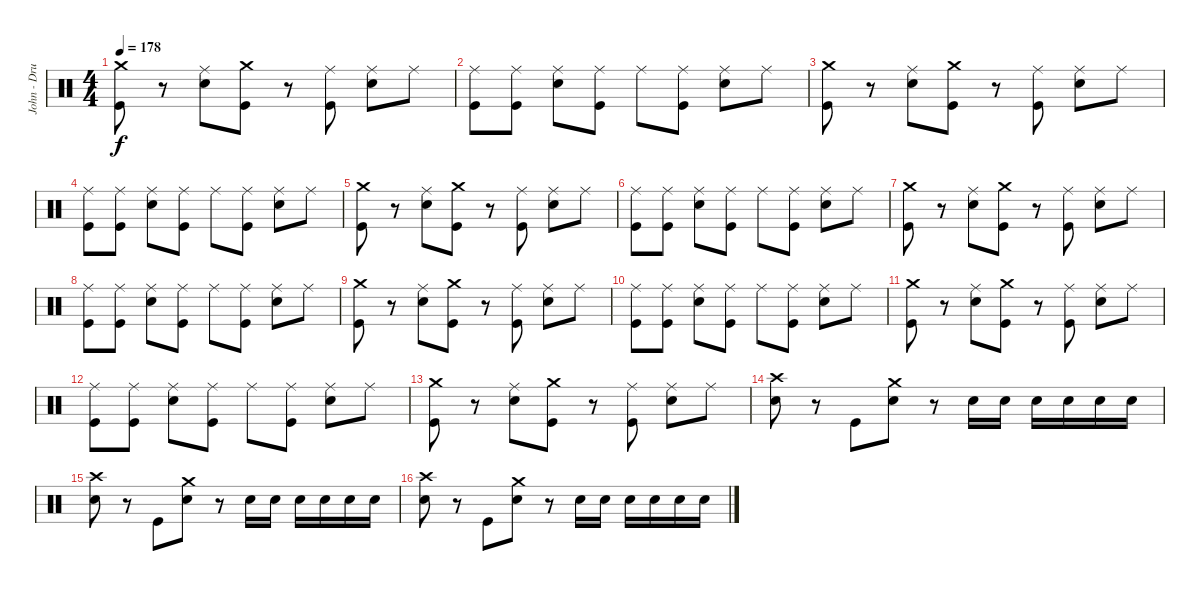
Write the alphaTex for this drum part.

\track ("John - Drums" "John - Dru") {instrument percussion}
\staff {score}
\articulation defaults
\ts (4 4)
\tempo 178
\clef neutral
\ks c
("Crash medium (hit)" "Kick (hit)").8{dy f} r.8 ("Ride (middle)" "Electric Snare (hit)").8 ("Crash medium (hit)" "Kick (hit)").8 r.8 ("Ride (middle)" "Kick (hit)").8 ("Ride (middle)" "Electric Snare (hit)").8 "Ride (middle)".8 |
("Ride (middle)" "Kick (hit)").8 ("Ride (middle)" "Kick (hit)").8 ("Ride (middle)" "Electric Snare (hit)").8 ("Ride (middle)" "Kick (hit)").8 "Ride (middle)".8 ("Ride (middle)" "Kick (hit)").8 ("Ride (middle)" "Electric Snare (hit)").8 "Ride (middle)".8 |
("Crash medium (hit)" "Kick (hit)").8 r.8 ("Ride (middle)" "Electric Snare (hit)").8 ("Crash medium (hit)" "Kick (hit)").8 r.8 ("Ride (middle)" "Kick (hit)").8 ("Ride (middle)" "Electric Snare (hit)").8 "Ride (middle)".8 |
("Ride (middle)" "Kick (hit)").8 ("Ride (middle)" "Kick (hit)").8 ("Ride (middle)" "Electric Snare (hit)").8 ("Ride (middle)" "Kick (hit)").8 "Ride (middle)".8 ("Ride (middle)" "Kick (hit)").8 ("Ride (middle)" "Electric Snare (hit)").8 "Ride (middle)".8 |
("Crash medium (hit)" "Kick (hit)").8 r.8 ("Ride (middle)" "Electric Snare (hit)").8 ("Crash medium (hit)" "Kick (hit)").8 r.8 ("Ride (middle)" "Kick (hit)").8 ("Ride (middle)" "Electric Snare (hit)").8 "Ride (middle)".8 |
("Ride (middle)" "Kick (hit)").8 ("Ride (middle)" "Kick (hit)").8 ("Ride (middle)" "Electric Snare (hit)").8 ("Ride (middle)" "Kick (hit)").8 "Ride (middle)".8 ("Ride (middle)" "Kick (hit)").8 ("Ride (middle)" "Electric Snare (hit)").8 "Ride (middle)".8 |
("Crash medium (hit)" "Kick (hit)").8 r.8 ("Ride (middle)" "Electric Snare (hit)").8 ("Crash medium (hit)" "Kick (hit)").8 r.8 ("Ride (middle)" "Kick (hit)").8 ("Ride (middle)" "Electric Snare (hit)").8 "Ride (middle)".8 |
("Ride (middle)" "Kick (hit)").8 ("Ride (middle)" "Kick (hit)").8 ("Ride (middle)" "Electric Snare (hit)").8 ("Ride (middle)" "Kick (hit)").8 "Ride (middle)".8 ("Ride (middle)" "Kick (hit)").8 ("Ride (middle)" "Electric Snare (hit)").8 "Ride (middle)".8 |
("Crash medium (hit)" "Kick (hit)").8 r.8 ("Ride (middle)" "Electric Snare (hit)").8 ("Crash medium (hit)" "Kick (hit)").8 r.8 ("Ride (middle)" "Kick (hit)").8 ("Ride (middle)" "Electric Snare (hit)").8 "Ride (middle)".8 |
("Ride (middle)" "Kick (hit)").8 ("Ride (middle)" "Kick (hit)").8 ("Ride (middle)" "Electric Snare (hit)").8 ("Ride (middle)" "Kick (hit)").8 "Ride (middle)".8 ("Ride (middle)" "Kick (hit)").8 ("Ride (middle)" "Electric Snare (hit)").8 "Ride (middle)".8 |
("Crash medium (hit)" "Kick (hit)").8 r.8 ("Ride (middle)" "Electric Snare (hit)").8 ("Crash medium (hit)" "Kick (hit)").8 r.8 ("Ride (middle)" "Kick (hit)").8 ("Ride (middle)" "Electric Snare (hit)").8 "Ride (middle)".8 |
("Ride (middle)" "Kick (hit)").8 ("Ride (middle)" "Kick (hit)").8 ("Ride (middle)" "Electric Snare (hit)").8 ("Ride (middle)" "Kick (hit)").8 "Ride (middle)".8 ("Ride (middle)" "Kick (hit)").8 ("Ride (middle)" "Electric Snare (hit)").8 "Ride (middle)".8 |
("Crash medium (hit)" "Kick (hit)").8 r.8 ("Ride (middle)" "Electric Snare (hit)").8 ("Crash medium (hit)" "Kick (hit)").8 r.8 ("Ride (middle)" "Kick (hit)").8 ("Ride (middle)" "Electric Snare (hit)").8 "Ride (middle)".8 |
("Crash high (hit)" "Electric Snare (hit)").8 r.8 "Kick (hit)".8 ("Crash medium (hit)" "Electric Snare (hit)").8 r.8 "Electric Snare (hit)".16 "Electric Snare (hit)".16 "Electric Snare (hit)".16 "Electric Snare (hit)".16 "Electric Snare (hit)".16 "Electric Snare (hit)".16 |
("Crash high (hit)" "Electric Snare (hit)").8 r.8 "Kick (hit)".8 ("Crash medium (hit)" "Electric Snare (hit)").8 r.8 "Electric Snare (hit)".16 "Electric Snare (hit)".16 "Electric Snare (hit)".16 "Electric Snare (hit)".16 "Electric Snare (hit)".16 "Electric Snare (hit)".16 |
("Crash high (hit)" "Electric Snare (hit)").8 r.8 "Kick (hit)".8 ("Crash medium (hit)" "Electric Snare (hit)").8 r.8 "Electric Snare (hit)".16 "Electric Snare (hit)".16 "Electric Snare (hit)".16 "Electric Snare (hit)".16 "Electric Snare (hit)".16 "Electric Snare (hit)".16
